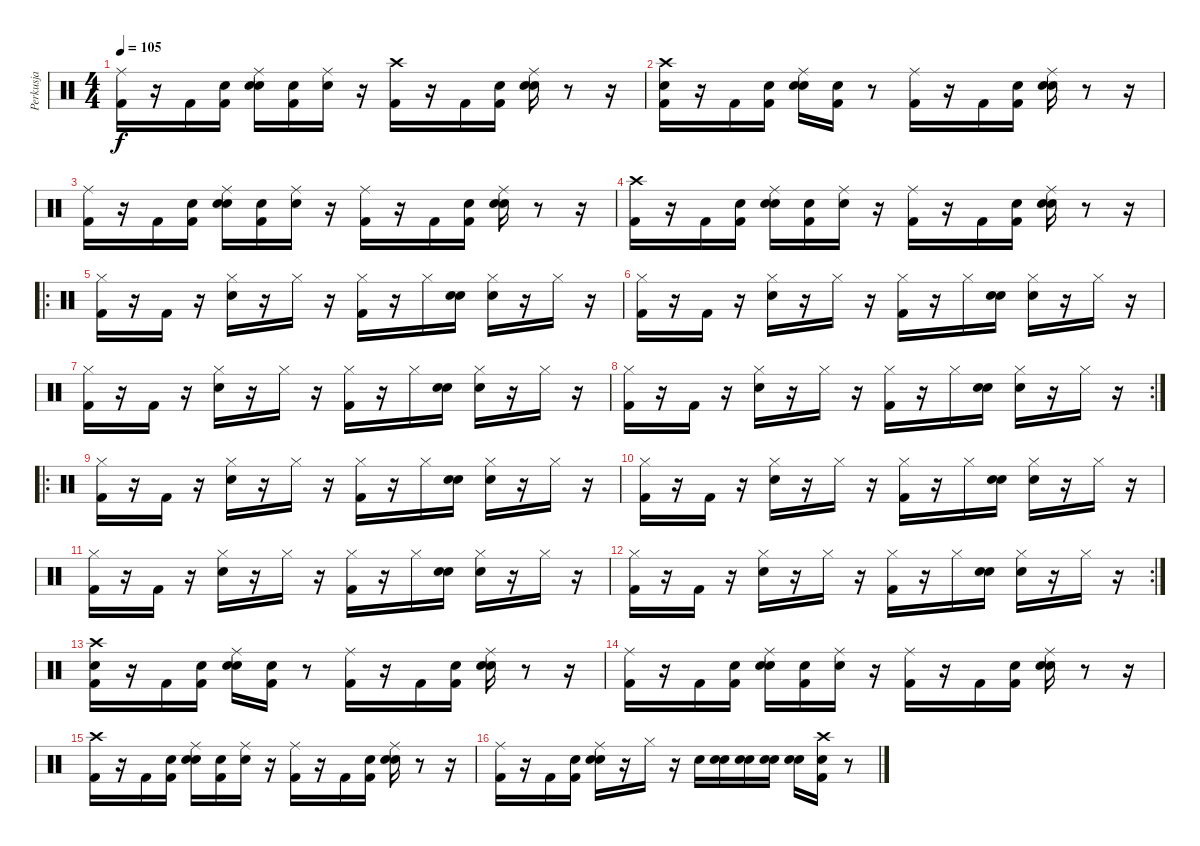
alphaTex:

\track ("Perkusja" "Perkusja") {instrument percussion}
\staff {score}
\articulation defaults
\ts (4 4)
\tempo 105
\clef neutral
\ks c
("Kick (hit) 2" "Ride (middle)").16{dy f} r.16 "Kick (hit) 2".16 ("Snare (hit)" "Kick (hit) 2").16 ("Snare (hit)" "Snare (hit) 2" "Ride (middle)").16 ("Snare (hit)" "Kick (hit) 2").16 ("Snare (hit)" "Ride (middle)").16 r.16 ("Kick (hit) 2" "Crash high (hit)").16 r.16 "Kick (hit) 2".16 ("Snare (hit)" "Kick (hit) 2").16 ("Snare (hit)" "Snare (hit) 2" "Ride (middle)").16 r.8 r.16 |
("Snare (hit)" "Kick (hit) 2" "Crash high (hit)").16 r.16 "Kick (hit) 2".16 ("Snare (hit)" "Kick (hit) 2").16 ("Snare (hit)" "Snare (hit) 2" "Ride (middle)").16 ("Snare (hit)" "Kick (hit) 2").16 r.8 ("Kick (hit) 2" "Ride (middle)").16 r.16 "Kick (hit) 2".16 ("Snare (hit)" "Kick (hit) 2").16 ("Snare (hit)" "Snare (hit) 2" "Ride (middle)").16 r.8 r.16 |
("Kick (hit) 2" "Ride (middle)").16 r.16 "Kick (hit) 2".16 ("Snare (hit)" "Kick (hit) 2").16 ("Snare (hit)" "Snare (hit) 2" "Ride (middle)").16 ("Snare (hit)" "Kick (hit) 2").16 ("Snare (hit)" "Ride (middle)").16 r.16 ("Kick (hit) 2" "Ride (middle)").16 r.16 "Kick (hit) 2".16 ("Snare (hit)" "Kick (hit) 2").16 ("Snare (hit)" "Snare (hit) 2" "Ride (middle)").16 r.8 r.16 |
("Kick (hit) 2" "Crash high (hit)").16 r.16 "Kick (hit) 2".16 ("Snare (hit)" "Kick (hit) 2").16 ("Snare (hit)" "Snare (hit) 2" "Ride (middle)").16 ("Snare (hit)" "Kick (hit) 2").16 ("Snare (hit)" "Ride (middle)").16 r.16 ("Kick (hit) 2" "Ride (middle)").16 r.16 "Kick (hit) 2".16 ("Snare (hit)" "Kick (hit) 2").16 ("Snare (hit)" "Snare (hit) 2" "Ride (middle)").16 r.8 r.16 |
\ro
("Kick (hit) 2" "Hi-Hat (closed)").16 r.16 "Kick (hit) 2".16 r.16 ("Snare (hit) 2" "Hi-Hat (closed)").16 r.16 "Hi-Hat (closed)".16 r.16 ("Kick (hit) 2" "Hi-Hat (closed)").16 r.16 "Hi-Hat (closed)".16 ("Snare (hit)" "Snare (hit) 2").16 ("Snare (hit)" "Hi-Hat (closed)").16 r.16 "Hi-Hat (closed)".16 r.16 |
("Kick (hit) 2" "Hi-Hat (closed)").16 r.16 "Kick (hit) 2".16 r.16 ("Snare (hit) 2" "Hi-Hat (closed)").16 r.16 "Hi-Hat (closed)".16 r.16 ("Kick (hit) 2" "Hi-Hat (closed)").16 r.16 "Hi-Hat (closed)".16 ("Snare (hit)" "Snare (hit) 2").16 ("Snare (hit)" "Hi-Hat (closed)").16 r.16 "Hi-Hat (closed)".16 r.16 |
("Kick (hit) 2" "Hi-Hat (closed)").16 r.16 "Kick (hit) 2".16 r.16 ("Snare (hit) 2" "Hi-Hat (closed)").16 r.16 "Hi-Hat (closed)".16 r.16 ("Kick (hit) 2" "Hi-Hat (closed)").16 r.16 "Hi-Hat (closed)".16 ("Snare (hit)" "Snare (hit) 2").16 ("Snare (hit)" "Hi-Hat (closed)").16 r.16 "Hi-Hat (closed)".16 r.16 |
\rc 2
("Kick (hit) 2" "Hi-Hat (closed)").16 r.16 "Kick (hit) 2".16 r.16 ("Snare (hit) 2" "Hi-Hat (closed)").16 r.16 "Hi-Hat (closed)".16 r.16 ("Kick (hit) 2" "Hi-Hat (closed)").16 r.16 "Hi-Hat (closed)".16 ("Snare (hit)" "Snare (hit) 2").16 ("Snare (hit)" "Hi-Hat (closed)").16 r.16 "Hi-Hat (closed)".16 r.16 |
\ro
("Kick (hit) 2" "Hi-Hat (closed)").16 r.16 "Kick (hit) 2".16 r.16 ("Snare (hit) 2" "Hi-Hat (closed)").16 r.16 "Hi-Hat (closed)".16 r.16 ("Kick (hit) 2" "Hi-Hat (closed)").16 r.16 "Hi-Hat (closed)".16 ("Snare (hit)" "Snare (hit) 2").16 ("Snare (hit)" "Hi-Hat (closed)").16 r.16 "Hi-Hat (closed)".16 r.16 |
("Kick (hit) 2" "Hi-Hat (closed)").16 r.16 "Kick (hit) 2".16 r.16 ("Snare (hit) 2" "Hi-Hat (closed)").16 r.16 "Hi-Hat (closed)".16 r.16 ("Kick (hit) 2" "Hi-Hat (closed)").16 r.16 "Hi-Hat (closed)".16 ("Snare (hit)" "Snare (hit) 2").16 ("Snare (hit)" "Hi-Hat (closed)").16 r.16 "Hi-Hat (closed)".16 r.16 |
("Kick (hit) 2" "Hi-Hat (closed)").16 r.16 "Kick (hit) 2".16 r.16 ("Snare (hit) 2" "Hi-Hat (closed)").16 r.16 "Hi-Hat (closed)".16 r.16 ("Kick (hit) 2" "Hi-Hat (closed)").16 r.16 "Hi-Hat (closed)".16 ("Snare (hit)" "Snare (hit) 2").16 ("Snare (hit)" "Hi-Hat (closed)").16 r.16 "Hi-Hat (closed)".16 r.16 |
\rc 2
("Kick (hit) 2" "Hi-Hat (closed)").16 r.16 "Kick (hit) 2".16 r.16 ("Snare (hit) 2" "Hi-Hat (closed)").16 r.16 "Hi-Hat (closed)".16 r.16 ("Kick (hit) 2" "Hi-Hat (closed)").16 r.16 "Hi-Hat (closed)".16 ("Snare (hit)" "Snare (hit) 2").16 ("Snare (hit)" "Hi-Hat (closed)").16 r.16 "Hi-Hat (closed)".16 r.16 |
("Snare (hit)" "Kick (hit) 2" "Crash high (hit)").16 r.16 "Kick (hit) 2".16 ("Snare (hit)" "Kick (hit) 2").16 ("Snare (hit)" "Snare (hit) 2" "Ride (middle)").16 ("Snare (hit)" "Kick (hit) 2").16 r.8 ("Kick (hit) 2" "Ride (middle)").16 r.16 "Kick (hit) 2".16 ("Snare (hit)" "Kick (hit) 2").16 ("Snare (hit)" "Snare (hit) 2" "Ride (middle)").16 r.8 r.16 |
("Kick (hit) 2" "Ride (middle)").16 r.16 "Kick (hit) 2".16 ("Snare (hit)" "Kick (hit) 2").16 ("Snare (hit)" "Snare (hit) 2" "Ride (middle)").16 ("Snare (hit)" "Kick (hit) 2").16 ("Snare (hit)" "Ride (middle)").16 r.16 ("Kick (hit) 2" "Ride (middle)").16 r.16 "Kick (hit) 2".16 ("Snare (hit)" "Kick (hit) 2").16 ("Snare (hit)" "Snare (hit) 2" "Ride (middle)").16 r.8 r.16 |
("Kick (hit) 2" "Crash high (hit)").16 r.16 "Kick (hit) 2".16 ("Snare (hit)" "Kick (hit) 2").16 ("Snare (hit)" "Snare (hit) 2" "Ride (middle)").16 ("Snare (hit)" "Kick (hit) 2").16 ("Snare (hit)" "Ride (middle)").16 r.16 ("Kick (hit) 2" "Ride (middle)").16 r.16 "Kick (hit) 2".16 ("Snare (hit)" "Kick (hit) 2").16 ("Snare (hit)" "Snare (hit) 2" "Ride (middle)").16 r.8 r.16 |
("Kick (hit) 2" "Ride (middle)").16 r.16 "Kick (hit) 2".16 ("Snare (hit)" "Kick (hit) 2").16 ("Snare (hit)" "Snare (hit) 2" "Ride (middle)").16 r.16 "Hi-Hat (closed)".16 r.16 "Snare (hit) 2".16 ("Snare (hit)" "Snare (hit) 2").16 ("Snare (hit)" "Snare (hit) 2").16 ("Snare (hit)" "Snare (hit) 2").16 ("Snare (hit)" "Snare (hit) 2").16 ("Snare (hit)" "Kick (hit) 2" "Crash high (hit)").16 r.8
